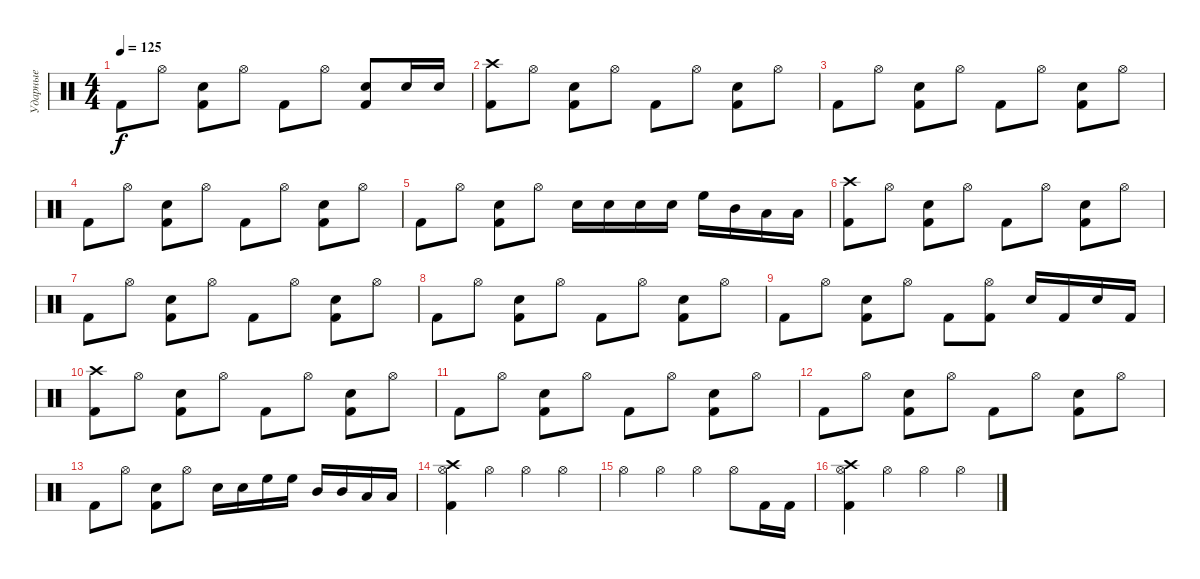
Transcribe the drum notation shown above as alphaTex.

\track ("Ударные" "Ударные") {instrument percussion}
\staff {score}
\articulation defaults
\ts (4 4)
\tempo 125
\clef neutral
\ks c "Kick (hit) 2".8{dy f} "Hi-Hat (open)".8
("Snare (hit) 2" "Kick (hit) 2").8 "Hi-Hat (open)".8 "Kick (hit) 2".8 "Hi-Hat (open)".8 ("Snare (hit) 2" "Kick (hit) 2").8 "Snare (hit) 2".16 "Snare (hit) 2".16 |
("Crash high (hit)" "Kick (hit) 2").8 "Hi-Hat (open)".8 ("Snare (hit) 2" "Kick (hit) 2").8 "Hi-Hat (open)".8 "Kick (hit) 2".8 "Hi-Hat (open)".8 ("Snare (hit) 2" "Kick (hit) 2").8 "Hi-Hat (open)".8 |
"Kick (hit) 2".8 "Hi-Hat (open)".8 ("Snare (hit) 2" "Kick (hit) 2").8 "Hi-Hat (open)".8 "Kick (hit) 2".8 "Hi-Hat (open)".8 ("Snare (hit) 2" "Kick (hit) 2").8 "Hi-Hat (open)".8 |
"Kick (hit) 2".8 "Hi-Hat (open)".8 ("Snare (hit) 2" "Kick (hit) 2").8 "Hi-Hat (open)".8 "Kick (hit) 2".8 "Hi-Hat (open)".8 ("Snare (hit) 2" "Kick (hit) 2").8 "Hi-Hat (open)".8 |
"Kick (hit) 2".8 "Hi-Hat (open)".8 ("Snare (hit) 2" "Kick (hit) 2").8 "Hi-Hat (open)".8 "Snare (hit) 2".16 "Snare (hit) 2".16 "Snare (hit) 2".16 "Snare (hit) 2".16 "High Floor Tom (hit)".16 "Mid Tom (hit)".16 "Low Tom (hit)".16 "Low Floor Tom (hit)".16 |
("Crash high (hit)" "Kick (hit) 2").8 "Hi-Hat (open)".8 ("Snare (hit) 2" "Kick (hit) 2").8 "Hi-Hat (open)".8 "Kick (hit) 2".8 "Hi-Hat (open)".8 ("Snare (hit) 2" "Kick (hit) 2").8 "Hi-Hat (open)".8 |
"Kick (hit) 2".8 "Hi-Hat (open)".8 ("Snare (hit) 2" "Kick (hit) 2").8 "Hi-Hat (open)".8 "Kick (hit) 2".8 "Hi-Hat (open)".8 ("Snare (hit) 2" "Kick (hit) 2").8 "Hi-Hat (open)".8 |
"Kick (hit) 2".8 "Hi-Hat (open)".8 ("Snare (hit) 2" "Kick (hit) 2").8 "Hi-Hat (open)".8 "Kick (hit) 2".8 "Hi-Hat (open)".8 ("Snare (hit) 2" "Kick (hit) 2").8 "Hi-Hat (open)".8 |
"Kick (hit) 2".8 "Hi-Hat (open)".8 ("Snare (hit) 2" "Kick (hit) 2").8 "Hi-Hat (open)".8 "Kick (hit) 2".8 ("Hi-Hat (open)" "Kick (hit) 2").8 "Snare (hit) 2".16 "Kick (hit) 2".16 "Snare (hit) 2".16 "Kick (hit) 2".16 |
("Crash high (hit)" "Kick (hit) 2").8 "Hi-Hat (open)".8 ("Snare (hit) 2" "Kick (hit) 2").8 "Hi-Hat (open)".8 "Kick (hit) 2".8 "Hi-Hat (open)".8 ("Snare (hit) 2" "Kick (hit) 2").8 "Hi-Hat (open)".8 |
"Kick (hit) 2".8 "Hi-Hat (open)".8 ("Snare (hit) 2" "Kick (hit) 2").8 "Hi-Hat (open)".8 "Kick (hit) 2".8 "Hi-Hat (open)".8 ("Snare (hit) 2" "Kick (hit) 2").8 "Hi-Hat (open)".8 |
"Kick (hit) 2".8 "Hi-Hat (open)".8 ("Snare (hit) 2" "Kick (hit) 2").8 "Hi-Hat (open)".8 "Kick (hit) 2".8 "Hi-Hat (open)".8 ("Snare (hit) 2" "Kick (hit) 2").8 "Hi-Hat (open)".8 |
"Kick (hit) 2".8 "Hi-Hat (open)".8 ("Snare (hit) 2" "Kick (hit) 2").8 "Hi-Hat (open)".8 "Snare (hit) 2".16 "Snare (hit) 2".16 "High Floor Tom (hit)".16 "High Floor Tom (hit)".16 "Mid Tom (hit)".16 "Mid Tom (hit)".16 "Low Tom (hit)".16 "Low Tom (hit)".16 |
("Hi-Hat (open)" "Crash high (hit)" "Kick (hit) 2").4 "Hi-Hat (open)".4 "Hi-Hat (open)".4 "Hi-Hat (open)".4 |
"Hi-Hat (open)".4 "Hi-Hat (open)".4 "Hi-Hat (open)".4 "Hi-Hat (open)".8 "Kick (hit) 2".16 "Kick (hit) 2".16 |
("Hi-Hat (open)" "Crash high (hit)" "Kick (hit) 2").4 "Hi-Hat (open)".4 "Hi-Hat (open)".4 "Hi-Hat (open)".4
